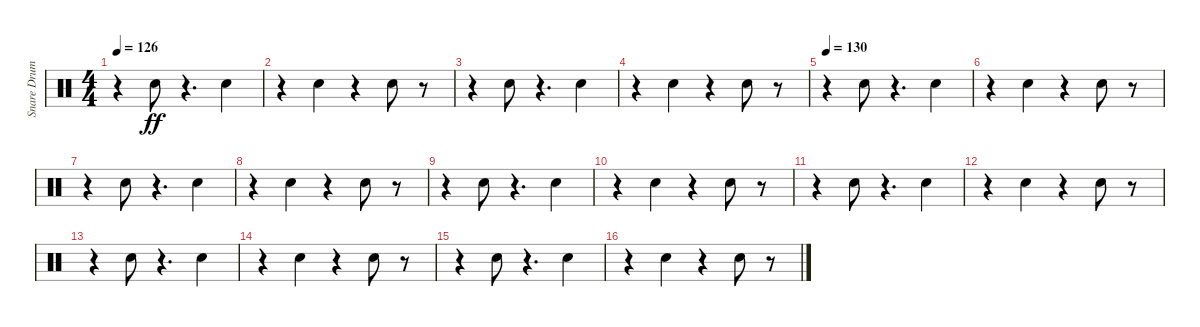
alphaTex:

\track ("Snare Drum" "Snare Drum") {instrument percussion}
\staff {score}
\articulation defaults
\ts (4 4)
\tempo 126
\clef neutral
\ks c
r.4{dy ff} "Electric Snare (hit)".8 r.4{d} "Electric Snare (hit)".4 |
r.4 "Electric Snare (hit)".4 r.4 "Electric Snare (hit)".8 r.8 |
r.4 "Electric Snare (hit)".8 r.4{d} "Electric Snare (hit)".4 |
r.4 "Electric Snare (hit)".4 r.4 "Electric Snare (hit)".8 r.8 |
\tempo 130
r.4 "Electric Snare (hit)".8 r.4{d} "Electric Snare (hit)".4 |
r.4 "Electric Snare (hit)".4 r.4 "Electric Snare (hit)".8 r.8 |
r.4 "Electric Snare (hit)".8 r.4{d} "Electric Snare (hit)".4 |
r.4 "Electric Snare (hit)".4 r.4 "Electric Snare (hit)".8 r.8 |
r.4 "Electric Snare (hit)".8 r.4{d} "Electric Snare (hit)".4 |
r.4 "Electric Snare (hit)".4 r.4 "Electric Snare (hit)".8 r.8 |
r.4 "Electric Snare (hit)".8 r.4{d} "Electric Snare (hit)".4 |
r.4 "Electric Snare (hit)".4 r.4 "Electric Snare (hit)".8 r.8 |
r.4 "Electric Snare (hit)".8 r.4{d} "Electric Snare (hit)".4 |
r.4 "Electric Snare (hit)".4 r.4 "Electric Snare (hit)".8 r.8 |
r.4 "Electric Snare (hit)".8 r.4{d} "Electric Snare (hit)".4 |
r.4 "Electric Snare (hit)".4 r.4 "Electric Snare (hit)".8 r.8
